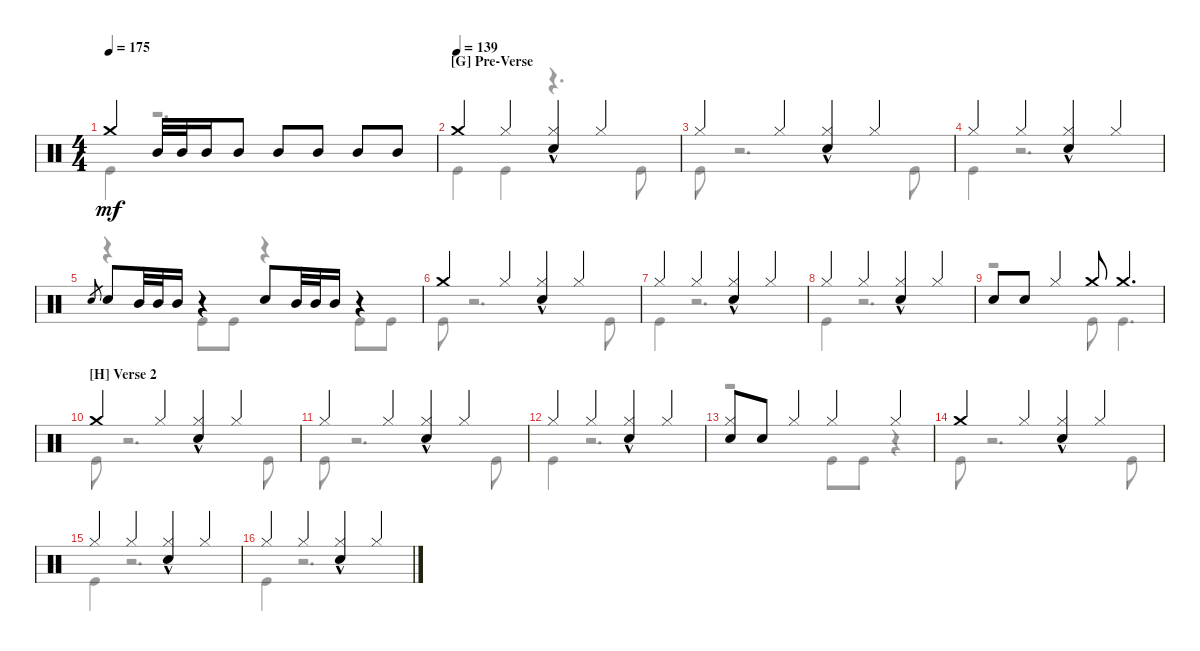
\defaultSystemsLayout 4
\bracketExtendMode groupsimilarinstruments
\singleTrackTrackNamePolicy hidden
\multiTrackTrackNamePolicy hidden
\firstSystemTrackNameOrientation horizontal
\otherSystemsTrackNameOrientation horizontal
\track ("Nicko McBrain" "Drums") {instrument percussion}
\staff {score}
\articulation defaults
\voice
\ts (4 4)
\tempo 175
\clef neutral
\scale
1.02648
\ks c "Crash medium (hit)".4{dy mf} "Mid Tom (hit)".32 "Mid Tom (hit)".32 "Mid Tom (hit)".16 "Mid Tom (hit)".8 "Mid Tom (hit)".8 "Mid Tom (hit)".8 "Mid Tom (hit)".8 "Mid Tom (hit)".8
|
\section ("G" "Pre-Verse")
\tempo 139
\scale
0.973518 "Crash medium (hit)".4 "Hi-Hat (closed)".4 ("Hi-Hat (closed)" "Snare (hit) 2"{hac}).4 "Hi-Hat (closed)".4 |
\scale
1.02648 "Hi-Hat (closed)".4 "Hi-Hat (closed)".4 ("Hi-Hat (closed)" "Snare (hit) 2"{hac}).4 "Hi-Hat (closed)".4 |
\scale
0.973518 "Hi-Hat (closed)".4 "Hi-Hat (closed)".4 ("Hi-Hat (closed)" "Snare (hit) 2"{hac}).4 "Hi-Hat (closed)".4 |
\scale
1.02648 "Snare (hit) 2".8{gr} "Snare (hit) 2".8 "Mid Tom (hit)".32 "Mid Tom (hit)".32 "Mid Tom (hit)".16 r.4 "Snare (hit) 2".8 "Mid Tom (hit)".32 "Mid Tom (hit)".32 "Mid Tom (hit)".16 r.4 |
\scale
0.973518 "Crash medium (hit)".4 "Hi-Hat (closed)".4 ("Hi-Hat (closed)" "Snare (hit) 2"{hac}).4 "Hi-Hat (closed)".4 |
\scale
1.02648 "Hi-Hat (closed)".4 "Hi-Hat (closed)".4 ("Hi-Hat (closed)" "Snare (hit) 2"{hac}).4 "Hi-Hat (closed)".4 |
\scale
0.973518 "Hi-Hat (closed)".4 "Hi-Hat (closed)".4 ("Hi-Hat (closed)" "Snare (hit) 2"{hac}).4 "Hi-Hat (closed)".4 |
\scale
1.02648 "Snare (hit) 2".8 "Snare (hit) 2".8 "Hi-Hat (closed)".4 "Crash medium (hit)".8 "Crash medium (hit)".4{d} |
\section ("H" "Verse 2")
\scale
0.973518 "Crash medium (hit)".4 "Hi-Hat (closed)".4 ("Hi-Hat (closed)" "Snare (hit) 2"{hac}).4 "Hi-Hat (closed)".4 |
\scale
1.02648 "Hi-Hat (closed)".4 "Hi-Hat (closed)".4 ("Hi-Hat (closed)" "Snare (hit) 2"{hac}).4 "Hi-Hat (closed)".4 |
\scale
0.973518 "Hi-Hat (closed)".4 "Hi-Hat (closed)".4 ("Hi-Hat (closed)" "Snare (hit) 2"{hac}).4 "Hi-Hat (closed)".4 |
\scale
1.02648 ("Snare (hit) 2" "Hi-Hat (closed)").8 "Snare (hit) 2".8 "Hi-Hat (closed)".4 "Hi-Hat (closed)".4 "Hi-Hat (closed)".4 |
\scale
0.973518 "Crash medium (hit)".4 "Hi-Hat (closed)".4 ("Hi-Hat (closed)" "Snare (hit) 2"{hac}).4 "Hi-Hat (closed)".4 |
\scale
1.02648 "Hi-Hat (closed)".4 "Hi-Hat (closed)".4 ("Hi-Hat (closed)" "Snare (hit) 2"{hac}).4 "Hi-Hat (closed)".4 |
\scale
0.973518 "Hi-Hat (closed)".4 "Hi-Hat (closed)".4 ("Hi-Hat (closed)" "Snare (hit) 2"{hac}).4 "Hi-Hat (closed)".4
\voice
\clef neutral
\ottava regular
\simile none
\scale
1.02648
\ks c "Kick (hit)".4{dy mf}
r.2{d} |
\scale
0.973518 "Kick (hit)".4 "Kick (hit)".4 r.4{d} "Kick (hit)".8 |
\scale
1.02648 "Kick (hit)".8 r.2{d} "Kick (hit)".8 |
\scale
0.973518 "Kick (hit)".4 r.2{d} |
\scale
1.02648 r.4 "Kick (hit)".8 "Kick (hit)".8 r.4 "Kick (hit)".8 "Kick (hit)".8 |
\scale
0.973518 "Kick (hit)".8 r.2{d} "Kick (hit)".8 |
\scale
1.02648 "Kick (hit)".4 r.2{d} |
\scale
0.973518 "Kick (hit)".4 r.2{d} |
\scale
1.02648 r.2 "Kick (hit)".8 "Kick (hit)".4{d} |
\scale
0.973518 "Kick (hit)".8 r.2{d} "Kick (hit)".8 |
\scale
1.02648 "Kick (hit)".8 r.2{d} "Kick (hit)".8 |
\scale
0.973518 "Kick (hit)".4 r.2{d} |
\scale
1.02648 r.2 "Kick (hit)".8 "Kick (hit)".8 r.4 |
\scale
0.973518 "Kick (hit)".8 r.2{d} "Kick (hit)".8 |
\scale
1.02648 "Kick (hit)".4 r.2{d} |
\scale
0.973518 "Kick (hit)".4 r.2{d}
